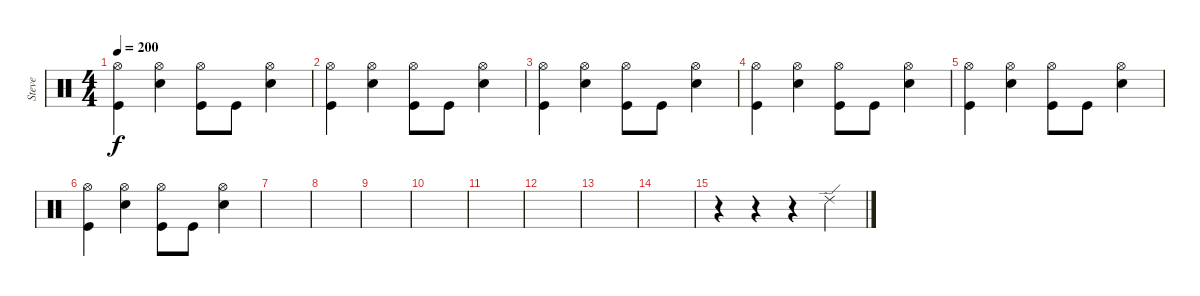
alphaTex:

\track ("Steve" "Steve") {instrument percussion}
\staff {score}
\articulation defaults
\ts (4 4)
\tempo 200
\clef neutral
\ks c
("Hi-Hat (open)" "Kick (hit)").4{dy f} ("Hi-Hat (open)" "Snare (hit) 2").4 ("Hi-Hat (open)" "Kick (hit)").8 "Kick (hit)".8 ("Hi-Hat (open)" "Snare (hit) 2").4 |
("Hi-Hat (open)" "Kick (hit)").4 ("Hi-Hat (open)" "Snare (hit) 2").4 ("Hi-Hat (open)" "Kick (hit)").8 "Kick (hit)".8 ("Hi-Hat (open)" "Snare (hit) 2").4 |
("Hi-Hat (open)" "Kick (hit)").4 ("Hi-Hat (open)" "Snare (hit) 2").4 ("Hi-Hat (open)" "Kick (hit)").8 "Kick (hit)".8 ("Hi-Hat (open)" "Snare (hit) 2").4 |
("Hi-Hat (open)" "Kick (hit)").4 ("Hi-Hat (open)" "Snare (hit) 2").4 ("Hi-Hat (open)" "Kick (hit)").8 "Kick (hit)".8 ("Hi-Hat (open)" "Snare (hit) 2").4 |
("Hi-Hat (open)" "Kick (hit)").4 ("Hi-Hat (open)" "Snare (hit) 2").4 ("Hi-Hat (open)" "Kick (hit)").8 "Kick (hit)".8 ("Hi-Hat (open)" "Snare (hit) 2").4 |
("Hi-Hat (open)" "Kick (hit)").4 ("Hi-Hat (open)" "Snare (hit) 2").4 ("Hi-Hat (open)" "Kick (hit)").8 "Kick (hit)".8 ("Hi-Hat (open)" "Snare (hit) 2").4 |
|
|
|
|
|
|
|
|
r.4 r.4 r.4 "Ride (edge) 2".4
